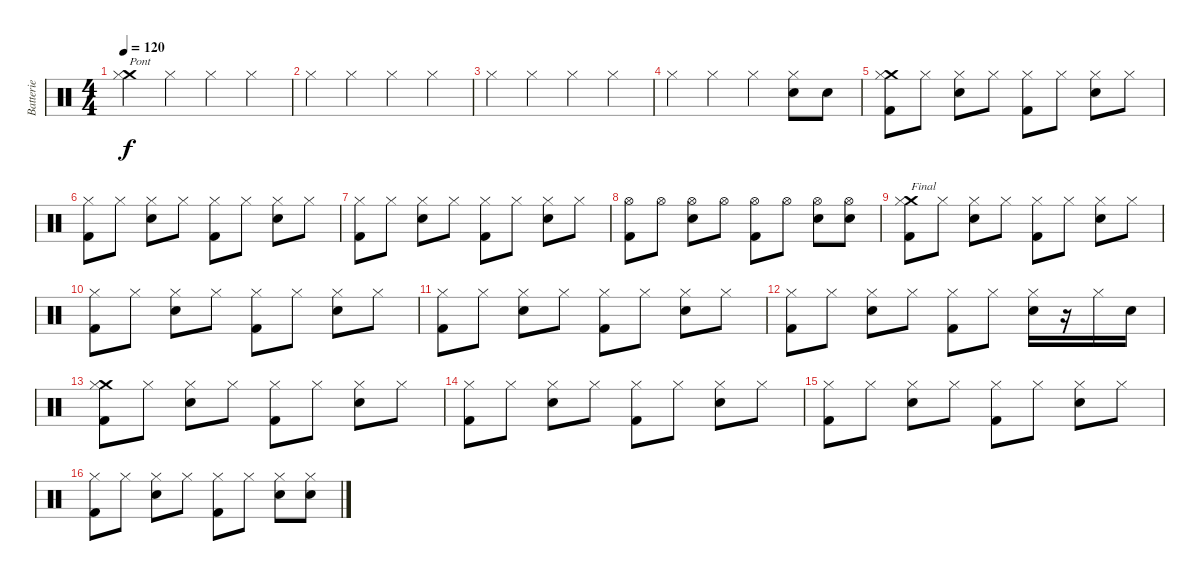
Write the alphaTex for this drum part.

\track ("Batterie" "Batterie") {instrument percussion}
\staff {score}
\articulation defaults
\ts (4 4)
\tempo 120
\clef neutral
\ks c
("Crash medium (hit)" "Hi-Hat (closed)").4{txt "Pont" dy f} "Hi-Hat (closed)".4 "Hi-Hat (closed)".4 "Hi-Hat (closed)".4 |
"Hi-Hat (closed)".4 "Hi-Hat (closed)".4 "Hi-Hat (closed)".4 "Hi-Hat (closed)".4 |
"Hi-Hat (closed)".4 "Hi-Hat (closed)".4 "Hi-Hat (closed)".4 "Hi-Hat (closed)".4 |
"Hi-Hat (closed)".4 "Hi-Hat (closed)".4 "Hi-Hat (closed)".4 ("Snare (hit) 2" "Hi-Hat (closed)").8 "Snare (hit) 2".8 |
("Kick (hit) 2" "Crash medium (hit)" "Hi-Hat (closed)").8 "Hi-Hat (closed)".8 ("Snare (hit) 2" "Hi-Hat (closed)").8 "Hi-Hat (closed)".8 ("Kick (hit) 2" "Hi-Hat (closed)").8 "Hi-Hat (closed)".8 ("Snare (hit) 2" "Hi-Hat (closed)").8 "Hi-Hat (closed)".8 |
("Kick (hit) 2" "Hi-Hat (closed)").8 "Hi-Hat (closed)".8 ("Snare (hit) 2" "Hi-Hat (closed)").8 "Hi-Hat (closed)".8 ("Kick (hit) 2" "Hi-Hat (closed)").8 "Hi-Hat (closed)".8 ("Snare (hit) 2" "Hi-Hat (closed)").8 "Hi-Hat (closed)".8 |
("Kick (hit) 2" "Hi-Hat (closed)").8 "Hi-Hat (closed)".8 ("Snare (hit) 2" "Hi-Hat (closed)").8 "Hi-Hat (closed)".8 ("Kick (hit) 2" "Hi-Hat (closed)").8 "Hi-Hat (closed)".8 ("Snare (hit) 2" "Hi-Hat (closed)").8 "Hi-Hat (closed)".8 |
("Kick (hit) 2" "Hi-Hat (open)").8 "Hi-Hat (open)".8 ("Snare (hit) 2" "Hi-Hat (open)").8 "Hi-Hat (open)".8 ("Kick (hit) 2" "Hi-Hat (open)").8 "Hi-Hat (open)".8 ("Snare (hit) 2" "Hi-Hat (open)").8 ("Snare (hit) 2" "Hi-Hat (open)").8 |
("Kick (hit) 2" "Crash medium (hit)" "Hi-Hat (closed)").8{txt "Final"} "Hi-Hat (closed)".8 ("Snare (hit) 2" "Hi-Hat (closed)").8 "Hi-Hat (closed)".8 ("Kick (hit) 2" "Hi-Hat (closed)").8 "Hi-Hat (closed)".8 ("Snare (hit) 2" "Hi-Hat (closed)").8 "Hi-Hat (closed)".8 |
("Kick (hit) 2" "Hi-Hat (closed)").8 "Hi-Hat (closed)".8 ("Snare (hit) 2" "Hi-Hat (closed)").8 "Hi-Hat (closed)".8 ("Kick (hit) 2" "Hi-Hat (closed)").8 "Hi-Hat (closed)".8 ("Snare (hit) 2" "Hi-Hat (closed)").8 "Hi-Hat (closed)".8 |
("Kick (hit) 2" "Hi-Hat (closed)").8 "Hi-Hat (closed)".8 ("Snare (hit) 2" "Hi-Hat (closed)").8 "Hi-Hat (closed)".8 ("Kick (hit) 2" "Hi-Hat (closed)").8 "Hi-Hat (closed)".8 ("Snare (hit) 2" "Hi-Hat (closed)").8 "Hi-Hat (closed)".8 |
("Kick (hit) 2" "Hi-Hat (closed)").8 "Hi-Hat (closed)".8 ("Snare (hit) 2" "Hi-Hat (closed)").8 "Hi-Hat (closed)".8 ("Kick (hit) 2" "Hi-Hat (closed)").8 "Hi-Hat (closed)".8 ("Snare (hit) 2" "Hi-Hat (closed)").16 r.16 "Hi-Hat (closed)".16 "Snare (hit) 2".16 |
("Kick (hit) 2" "Crash medium (hit)" "Hi-Hat (closed)").8 "Hi-Hat (closed)".8 ("Snare (hit) 2" "Hi-Hat (closed)").8 "Hi-Hat (closed)".8 ("Kick (hit) 2" "Hi-Hat (closed)").8 "Hi-Hat (closed)".8 ("Snare (hit) 2" "Hi-Hat (closed)").8 "Hi-Hat (closed)".8 |
("Kick (hit) 2" "Hi-Hat (closed)").8 "Hi-Hat (closed)".8 ("Snare (hit) 2" "Hi-Hat (closed)").8 "Hi-Hat (closed)".8 ("Kick (hit) 2" "Hi-Hat (closed)").8 "Hi-Hat (closed)".8 ("Snare (hit) 2" "Hi-Hat (closed)").8 "Hi-Hat (closed)".8 |
("Kick (hit) 2" "Hi-Hat (closed)").8 "Hi-Hat (closed)".8 ("Snare (hit) 2" "Hi-Hat (closed)").8 "Hi-Hat (closed)".8 ("Kick (hit) 2" "Hi-Hat (closed)").8 "Hi-Hat (closed)".8 ("Snare (hit) 2" "Hi-Hat (closed)").8 "Hi-Hat (closed)".8 |
("Kick (hit) 2" "Hi-Hat (closed)").8 "Hi-Hat (closed)".8 ("Snare (hit) 2" "Hi-Hat (closed)").8 "Hi-Hat (closed)".8 ("Kick (hit) 2" "Hi-Hat (closed)").8 "Hi-Hat (closed)".8 ("Snare (hit) 2" "Hi-Hat (closed)").8 ("Snare (hit) 2" "Hi-Hat (closed)").8
